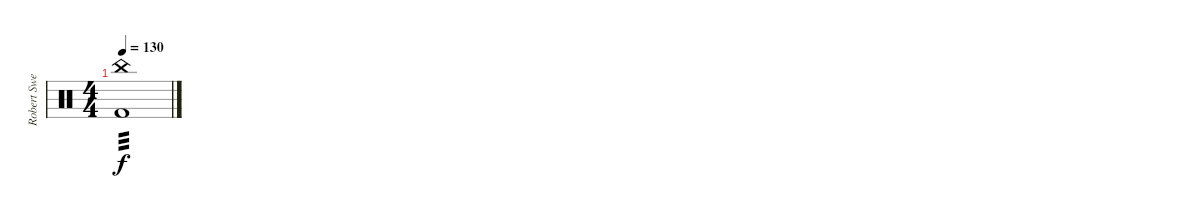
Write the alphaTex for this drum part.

\track ("Robert Sweet" "Robert Swe") {instrument percussion}
\staff {score}
\articulation defaults
\ts (4 4)
\tempo 130
\clef neutral
\ks c
("Kick (hit) 2" "China (hit)").1{tp 3 dy f}
